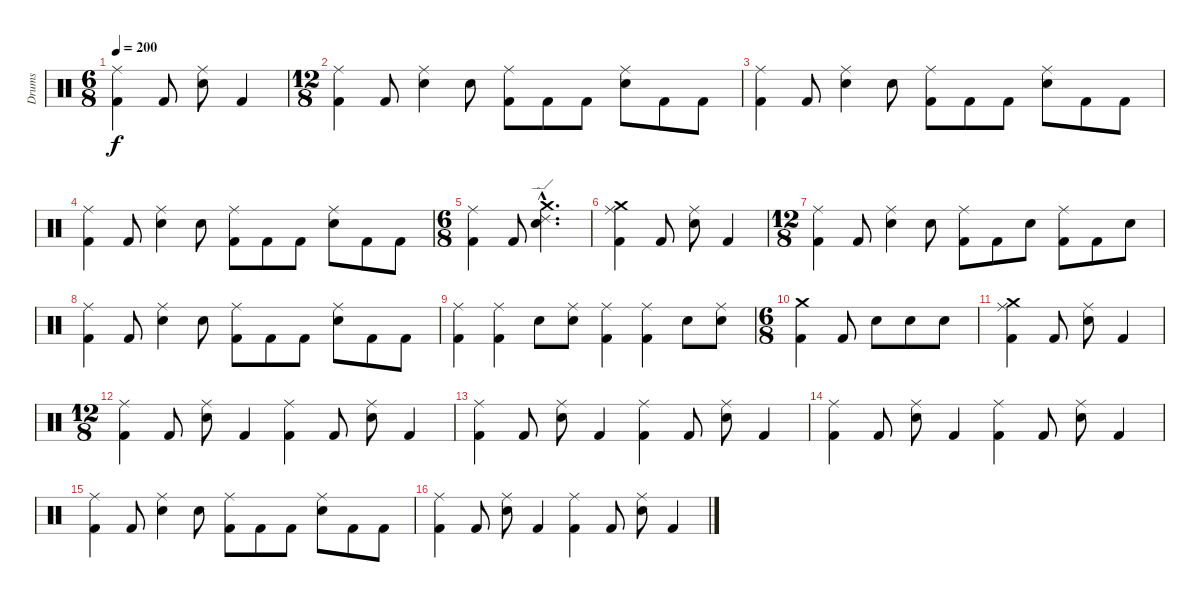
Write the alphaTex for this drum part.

\track ("Drums" "Drums") {instrument percussion}
\staff {score}
\articulation defaults
\ts (6 8)
\tempo 200
\clef neutral
\ks c
("Ride (middle)" "Kick (hit) 2").4{dy f} "Kick (hit) 2".8 ("Ride (middle)" "Electric Snare (hit)").8 "Kick (hit) 2".4 |
\ts (12 8)
("Ride (middle)" "Kick (hit) 2").4 "Kick (hit) 2".8 ("Ride (middle)" "Electric Snare (hit)").4 "Electric Snare (hit)".8 ("Ride (middle)" "Kick (hit) 2").8 "Kick (hit) 2".8 "Kick (hit) 2".8 ("Ride (middle)" "Electric Snare (hit)").8 "Kick (hit) 2".8 "Kick (hit) 2".8 |
("Ride (middle)" "Kick (hit) 2").4 "Kick (hit) 2".8 ("Ride (middle)" "Electric Snare (hit)").4 "Electric Snare (hit)".8 ("Ride (middle)" "Kick (hit) 2").8 "Kick (hit) 2".8 "Kick (hit) 2".8 ("Ride (middle)" "Electric Snare (hit)").8 "Kick (hit) 2".8 "Kick (hit) 2".8 |
("Ride (middle)" "Kick (hit) 2").4 "Kick (hit) 2".8 ("Ride (middle)" "Electric Snare (hit)").4 "Electric Snare (hit)".8 ("Ride (middle)" "Kick (hit) 2").8 "Kick (hit) 2".8 "Kick (hit) 2".8 ("Ride (middle)" "Electric Snare (hit)").8 "Kick (hit) 2".8 "Kick (hit) 2".8 |
\ts (6 8)
("Ride (middle)" "Kick (hit) 2").4 "Kick (hit) 2".8 ("Crash medium (hit)"{hac} "Ride (edge) 2"{hac} "Electric Snare (hit)"{hac}).4{d} |
("Crash medium (hit)" "Ride (middle)" "Kick (hit) 2").4 "Kick (hit) 2".8 ("Ride (middle)" "Electric Snare (hit)").8 "Kick (hit) 2".4 |
\ts (12 8)
("Ride (middle)" "Kick (hit) 2").4 "Kick (hit) 2".8 ("Ride (middle)" "Electric Snare (hit)").4 "Electric Snare (hit)".8 ("Ride (middle)" "Kick (hit) 2").8 "Kick (hit) 2".8 "Electric Snare (hit)".8 ("Ride (middle)" "Kick (hit) 2").8 "Kick (hit) 2".8 "Electric Snare (hit)".8 |
("Ride (middle)" "Kick (hit) 2").4 "Kick (hit) 2".8 ("Ride (middle)" "Electric Snare (hit)").4 "Electric Snare (hit)".8 ("Ride (middle)" "Kick (hit) 2").8 "Kick (hit) 2".8 "Kick (hit) 2".8 ("Ride (middle)" "Electric Snare (hit)").8 "Kick (hit) 2".8 "Kick (hit) 2".8 |
("Ride (middle)" "Kick (hit) 2").4 ("Ride (middle)" "Kick (hit) 2").4 "Electric Snare (hit)".8 ("Ride (middle)" "Electric Snare (hit)").8 ("Ride (middle)" "Kick (hit) 2").4 ("Ride (middle)" "Kick (hit) 2").4 "Electric Snare (hit)".8 ("Ride (middle)" "Electric Snare (hit)").8 |
\ts (6 8)
("Crash medium (hit)" "Kick (hit) 2").4 "Kick (hit) 2".8 "Electric Snare (hit)".8 "Electric Snare (hit)".8 "Electric Snare (hit)".8 |
("Crash medium (hit)" "Ride (middle)" "Kick (hit) 2").4 "Kick (hit) 2".8 ("Ride (middle)" "Electric Snare (hit)").8 "Kick (hit) 2".4 |
\ts (12 8)
("Ride (middle)" "Kick (hit) 2").4 "Kick (hit) 2".8 ("Ride (middle)" "Electric Snare (hit)").8 "Kick (hit) 2".4 ("Ride (middle)" "Kick (hit) 2").4 "Kick (hit) 2".8 ("Ride (middle)" "Electric Snare (hit)").8 "Kick (hit) 2".4 |
("Ride (middle)" "Kick (hit) 2").4 "Kick (hit) 2".8 ("Ride (middle)" "Electric Snare (hit)").8 "Kick (hit) 2".4 ("Ride (middle)" "Kick (hit) 2").4 "Kick (hit) 2".8 ("Ride (middle)" "Electric Snare (hit)").8 "Kick (hit) 2".4 |
("Ride (middle)" "Kick (hit) 2").4 "Kick (hit) 2".8 ("Ride (middle)" "Electric Snare (hit)").8 "Kick (hit) 2".4 ("Ride (middle)" "Kick (hit) 2").4 "Kick (hit) 2".8 ("Ride (middle)" "Electric Snare (hit)").8 "Kick (hit) 2".4 |
("Ride (middle)" "Kick (hit) 2").4 "Kick (hit) 2".8 ("Ride (middle)" "Electric Snare (hit)").4 "Electric Snare (hit)".8 ("Ride (middle)" "Kick (hit) 2").8 "Kick (hit) 2".8 "Kick (hit) 2".8 ("Ride (middle)" "Electric Snare (hit)").8 "Kick (hit) 2".8 "Kick (hit) 2".8 |
("Ride (middle)" "Kick (hit) 2").4 "Kick (hit) 2".8 ("Ride (middle)" "Electric Snare (hit)").8 "Kick (hit) 2".4 ("Ride (middle)" "Kick (hit) 2").4 "Kick (hit) 2".8 ("Ride (middle)" "Electric Snare (hit)").8 "Kick (hit) 2".4
